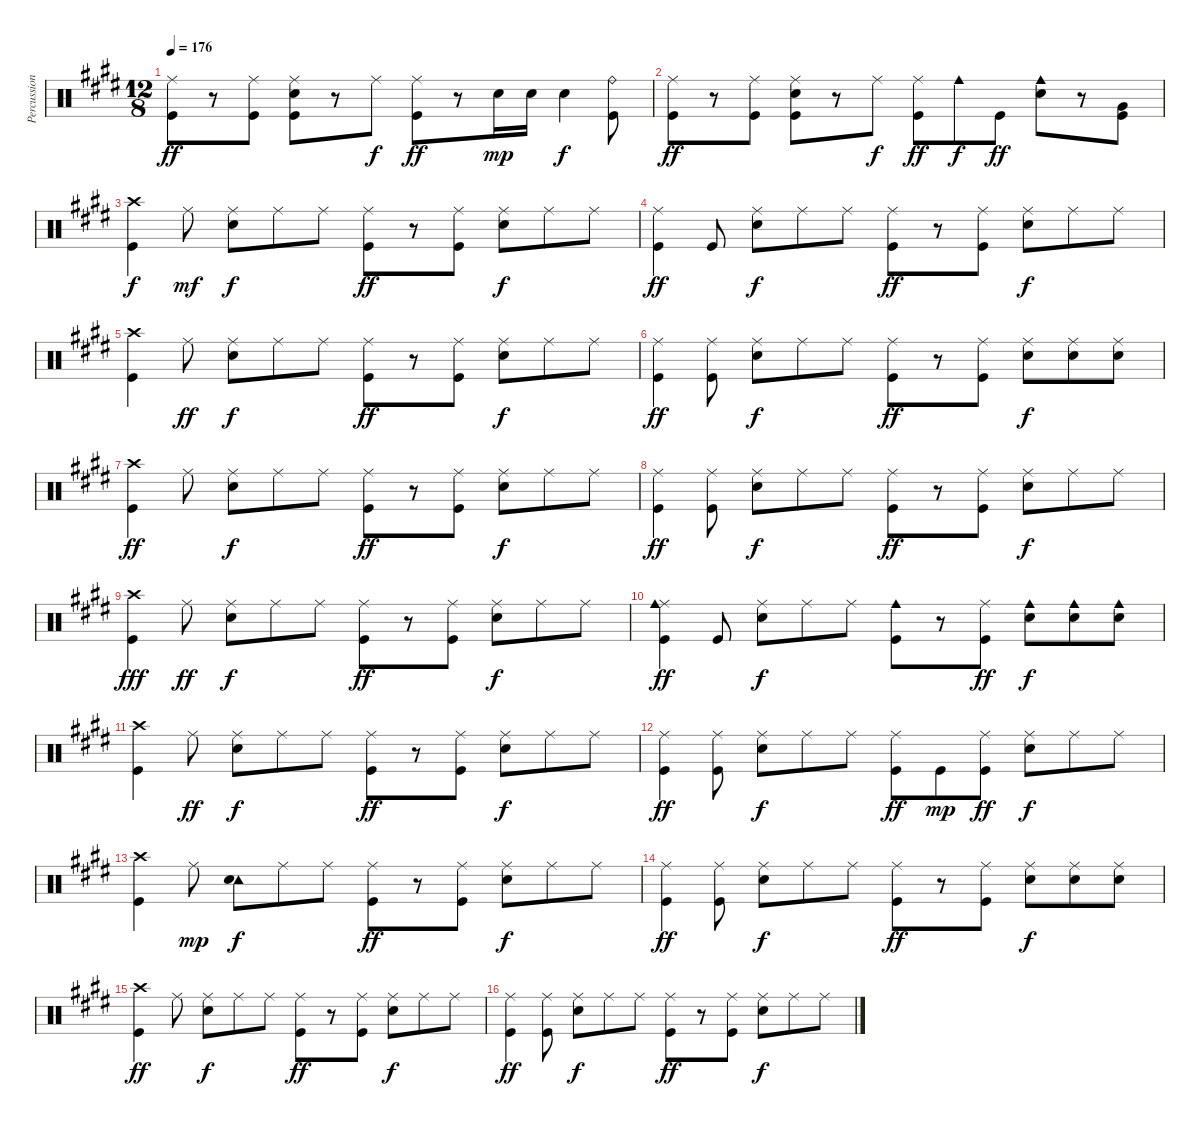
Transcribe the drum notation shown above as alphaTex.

\track ("Percussion" "Percussion") {instrument percussion}
\staff {score}
\articulation defaults
\ts (12 8)
\tempo 176
\clef neutral
\ks e
("Ride (middle)" "Kick (hit)").8{dy ff} r.8 ("Ride (middle)" "Kick (hit)").8 ("Ride (middle)" "Electric Snare (hit)" "Kick (hit)").8 r.8 "Ride (middle)".8{dy f} ("Ride (middle)" "Kick (hit)").8{dy ff} r.8 "Snare (hit) 2".16{dy mp} "Snare (hit) 2".16 "Snare (hit) 2".4{dy f} ("Ride (bell)" "Kick (hit)").8 |
("Ride (middle)" "Kick (hit)").8{dy ff} r.8 ("Ride (middle)" "Kick (hit)").8 ("Ride (middle)" "Electric Snare (hit)" "Kick (hit)").8 r.8 "Ride (middle)".8{dy f} ("Ride (middle)" "Kick (hit)").8{dy ff} "Cowbell medium (hit)".8{dy f} "Kick (hit)".8{dy ff} ("Cowbell medium (hit)" "Electric Snare (hit)").8 r.8 ("Very Low Tom (hit)" "Kick (hit)").8 |
("Crash high (hit)" "Kick (hit)").4{dy f} "Ride (middle)".8{dy mf} ("Ride (middle)" "Electric Snare (hit)").8{dy f} "Ride (middle)".8 "Ride (middle)".8 ("Ride (middle)" "Kick (hit)").8{dy ff} r.8 ("Ride (middle)" "Kick (hit)").8 ("Ride (middle)" "Electric Snare (hit)").8{dy f} "Ride (middle)".8 "Ride (middle)".8 |
("Ride (middle)" "Kick (hit)").4{dy ff} "Kick (hit)".8 ("Ride (middle)" "Electric Snare (hit)").8{dy f} "Ride (middle)".8 "Ride (middle)".8 ("Ride (middle)" "Kick (hit)").8{dy ff} r.8 ("Ride (middle)" "Kick (hit)").8 ("Ride (middle)" "Electric Snare (hit)").8{dy f} "Ride (middle)".8 "Ride (middle)".8 |
("Crash high (hit)" "Kick (hit)").4 "Ride (middle)".8{dy ff} ("Ride (middle)" "Electric Snare (hit)").8{dy f} "Ride (middle)".8 "Ride (middle)".8 ("Ride (middle)" "Kick (hit)").8{dy ff} r.8 ("Ride (middle)" "Kick (hit)").8 ("Ride (middle)" "Electric Snare (hit)").8{dy f} "Ride (middle)".8 "Ride (middle)".8 |
("Ride (middle)" "Kick (hit)").4{dy ff} ("Ride (middle)" "Kick (hit)").8 ("Ride (middle)" "Electric Snare (hit)").8{dy f} "Ride (middle)".8 "Ride (middle)".8 ("Ride (middle)" "Kick (hit)").8{dy ff} r.8 ("Ride (middle)" "Kick (hit)").8 ("Ride (middle)" "Electric Snare (hit)").8{dy f} ("Ride (middle)" "Electric Snare (hit)").8 ("Ride (middle)" "Electric Snare (hit)").8 |
("Crash high (hit)" "Kick (hit)").4{dy ff} "Ride (middle)".8 ("Ride (middle)" "Electric Snare (hit)").8{dy f} "Ride (middle)".8 "Ride (middle)".8 ("Ride (middle)" "Kick (hit)").8{dy ff} r.8 ("Ride (middle)" "Kick (hit)").8 ("Ride (middle)" "Electric Snare (hit)").8{dy f} "Ride (middle)".8 "Ride (middle)".8 |
("Ride (middle)" "Kick (hit)").4{dy ff} ("Ride (middle)" "Kick (hit)").8 ("Ride (middle)" "Electric Snare (hit)").8{dy f} "Ride (middle)".8 "Ride (middle)".8 ("Ride (middle)" "Kick (hit)").8{dy ff} r.8 ("Ride (middle)" "Kick (hit)").8 ("Ride (middle)" "Electric Snare (hit)").8{dy f} "Ride (middle)".8 "Ride (middle)".8 |
("Crash high (hit)" "Kick (hit)").4{dy fff} "Ride (middle)".8{dy ff} ("Ride (middle)" "Electric Snare (hit)").8{dy f} "Ride (middle)".8 "Ride (middle)".8 ("Ride (middle)" "Kick (hit)").8{dy ff} r.8 ("Ride (middle)" "Kick (hit)").8 ("Ride (middle)" "Electric Snare (hit)").8{dy f} "Ride (middle)".8 "Ride (middle)".8 |
("Ride (middle)" "Cowbell medium (hit)" "Kick (hit)").4{dy ff} "Kick (hit)".8 ("Ride (middle)" "Electric Snare (hit)").8{dy f} "Ride (middle)".8 "Ride (middle)".8 ("Cowbell medium (hit)" "Kick (hit)").8 r.8 ("Ride (middle)" "Kick (hit)").8{dy ff} ("Cowbell medium (hit)" "Electric Snare (hit)").8{dy f} ("Cowbell medium (hit)" "Electric Snare (hit)").8 ("Cowbell medium (hit)" "Electric Snare (hit)").8 |
("Crash high (hit)" "Kick (hit)").4 "Ride (middle)".8{dy ff} ("Ride (middle)" "Electric Snare (hit)").8{dy f} "Ride (middle)".8 "Ride (middle)".8 ("Ride (middle)" "Kick (hit)").8{dy ff} r.8 ("Ride (middle)" "Kick (hit)").8 ("Ride (middle)" "Electric Snare (hit)").8{dy f} "Ride (middle)".8 "Ride (middle)".8 |
("Ride (middle)" "Kick (hit)").4{dy ff} ("Ride (middle)" "Kick (hit)").8 ("Ride (middle)" "Electric Snare (hit)").8{dy f} "Ride (middle)".8 "Ride (middle)".8 ("Ride (middle)" "Kick (hit)").8{dy ff} "Kick (hit)".8{dy mp} ("Ride (middle)" "Kick (hit)").8{dy ff} ("Ride (middle)" "Electric Snare (hit)").8{dy f} "Ride (middle)".8 "Ride (middle)".8 |
("Crash high (hit)" "Kick (hit)").4 "Ride (middle)".8{dy mp} ("Tambourine (hit)" "Electric Snare (hit)").8{dy f} "Ride (middle)".8 "Ride (middle)".8 ("Ride (middle)" "Kick (hit)").8{dy ff} r.8 ("Ride (middle)" "Kick (hit)").8 ("Ride (middle)" "Electric Snare (hit)").8{dy f} "Ride (middle)".8 "Ride (middle)".8 |
("Ride (middle)" "Kick (hit)").4{dy ff} ("Ride (middle)" "Kick (hit)").8 ("Ride (middle)" "Electric Snare (hit)").8{dy f} "Ride (middle)".8 "Ride (middle)".8 ("Ride (middle)" "Kick (hit)").8{dy ff} r.8 ("Ride (middle)" "Kick (hit)").8 ("Ride (middle)" "Electric Snare (hit)").8{dy f} ("Ride (middle)" "Electric Snare (hit)").8 ("Ride (middle)" "Electric Snare (hit)").8 |
("Crash high (hit)" "Kick (hit)").4{dy ff} "Ride (middle)".8 ("Ride (middle)" "Electric Snare (hit)").8{dy f} "Ride (middle)".8 "Ride (middle)".8 ("Ride (middle)" "Kick (hit)").8{dy ff} r.8 ("Ride (middle)" "Kick (hit)").8 ("Ride (middle)" "Electric Snare (hit)").8{dy f} "Ride (middle)".8 "Ride (middle)".8 |
("Ride (middle)" "Kick (hit)").4{dy ff} ("Ride (middle)" "Kick (hit)").8 ("Ride (middle)" "Electric Snare (hit)").8{dy f} "Ride (middle)".8 "Ride (middle)".8 ("Ride (middle)" "Kick (hit)").8{dy ff} r.8 ("Ride (middle)" "Kick (hit)").8 ("Ride (middle)" "Electric Snare (hit)").8{dy f} "Ride (middle)".8 "Ride (middle)".8
